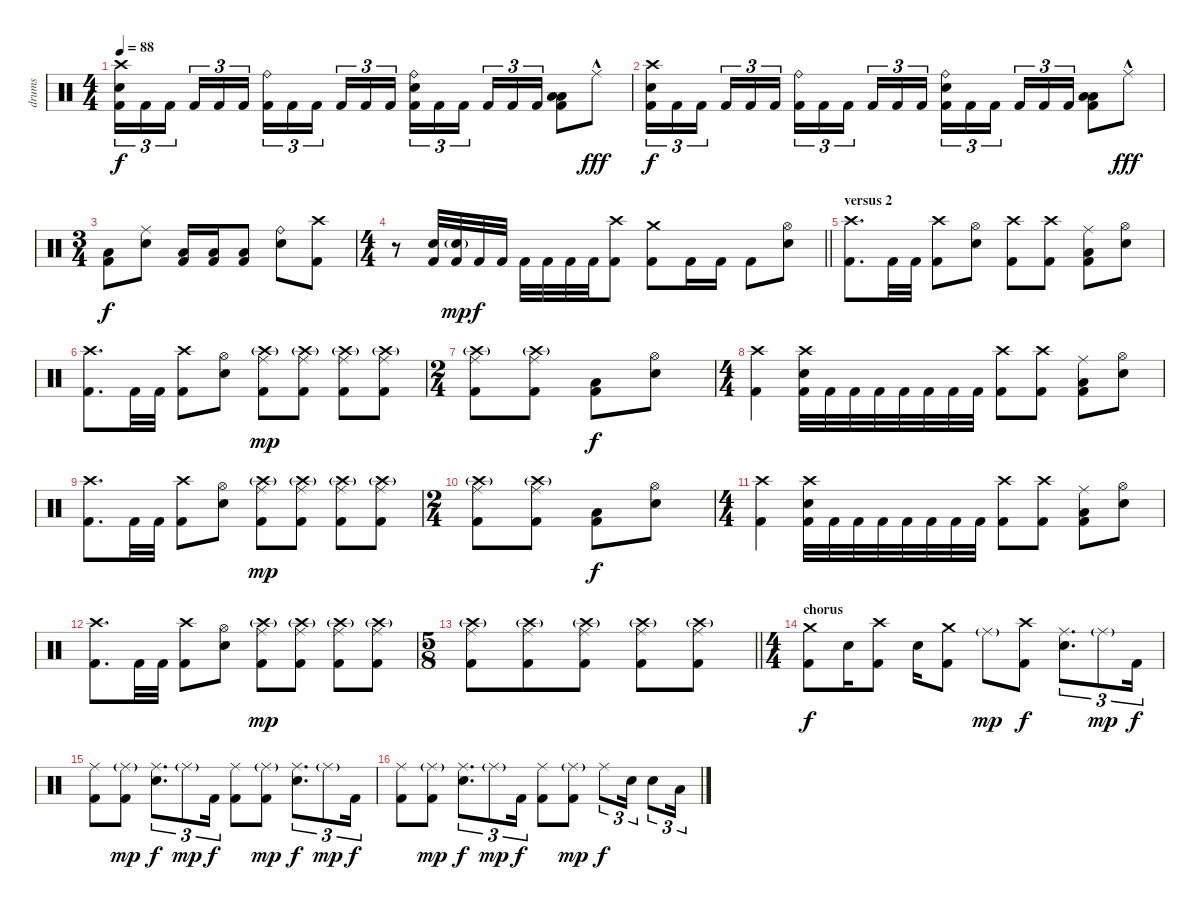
\track ("drums" "drums") {instrument percussion}
\staff {score}
\articulation defaults
\ts (4 4)
\tempo 88
\clef neutral
\ks c
("Crash high (hit)" "Snare (hit) 2" "Kick (hit) 2").16{tu (3 2) dy f} "Kick (hit) 2".16{tu (3 2)} "Kick (hit) 2".16{tu (3 2) beam splitsecondary} "Kick (hit) 2".16{tu (3 2)} "Kick (hit) 2".16{tu (3 2)} "Kick (hit) 2".16{tu (3 2)} ("Ride (bell)" "Kick (hit) 2").16{tu (3 2)} "Kick (hit) 2".16{tu (3 2)} "Kick (hit) 2".16{tu (3 2) beam splitsecondary} "Kick (hit) 2".16{tu (3 2)} "Kick (hit) 2".16{tu (3 2)} "Kick (hit) 2".16{tu (3 2)} ("Ride (bell)" "Snare (hit) 2" "Kick (hit) 2").16{tu (3 2)} "Kick (hit) 2".16{tu (3 2)} "Kick (hit) 2".16{tu (3 2) beam splitsecondary} "Kick (hit) 2".16{tu (3 2)} "Kick (hit) 2".16{tu (3 2)} "Kick (hit) 2".16{tu (3 2)} ("Low Floor Tom (hit)" "Low Floor Tom (hit)" "Kick (hit) 2").8 "Ride (middle)"{hac}.8{dy fff} |
("Crash high (hit)" "Snare (hit) 2" "Kick (hit) 2").16{tu (3 2) dy f} "Kick (hit) 2".16{tu (3 2)} "Kick (hit) 2".16{tu (3 2) beam splitsecondary} "Kick (hit) 2".16{tu (3 2)} "Kick (hit) 2".16{tu (3 2)} "Kick (hit) 2".16{tu (3 2)} ("Ride (bell)" "Kick (hit) 2").16{tu (3 2)} "Kick (hit) 2".16{tu (3 2)} "Kick (hit) 2".16{tu (3 2) beam splitsecondary} "Kick (hit) 2".16{tu (3 2)} "Kick (hit) 2".16{tu (3 2)} "Kick (hit) 2".16{tu (3 2)} ("Ride (bell)" "Snare (hit) 2" "Kick (hit) 2").16{tu (3 2)} "Kick (hit) 2".16{tu (3 2)} "Kick (hit) 2".16{tu (3 2) beam splitsecondary} "Kick (hit) 2".16{tu (3 2)} "Kick (hit) 2".16{tu (3 2)} "Kick (hit) 2".16{tu (3 2)} ("Low Floor Tom (hit)" "Low Floor Tom (hit)" "Kick (hit) 2").8 "Ride (middle)"{hac}.8{dy fff} |
\ts (3 4)
("Low Floor Tom (hit)" "Kick (hit) 2").8{dy f} ("Ride (middle)" "Snare (hit) 2").8 ("Low Floor Tom (hit)" "Kick (hit) 2").16 ("Low Floor Tom (hit)" "Kick (hit) 2").16 ("Low Floor Tom (hit)" "Kick (hit) 2").8 ("Ride (bell)" "Snare (hit) 2").8 ("Crash high (hit)" "Kick (hit) 2").8 |
\ts (4 4)
\barLineRight lightlight
r.8 ("Kick (hit) 2" "Snare (hit) 2").32 ("Snare (hit) 2"{g} "Kick (hit) 2").32{dy mp} "Kick (hit) 2".32{dy f} "Kick (hit) 2".32 "Kick (hit) 2".32 "Kick (hit) 2".32 "Kick (hit) 2".32 "Kick (hit) 2".32 ("Crash high (hit)" "Kick (hit) 2").8 ("Crash medium (hit)" "Kick (hit) 2").8 "Kick (hit) 2".16 "Kick (hit) 2".16 "Kick (hit) 2".8 ("Hi-Hat (open)" "Snare (hit) 2").8 |
\section ("" "versus 2")
("Crash high (hit)" "Kick (hit) 2").8{d} "Kick (hit) 2".32 "Kick (hit) 2".32 ("Crash high (hit)" "Kick (hit) 2").8 ("Hi-Hat (open)" "Snare (hit) 2").8 ("Crash high (hit)" "Kick (hit) 2").8 ("Crash high (hit)" "Kick (hit) 2").8 ("Ride (middle)" "Low Floor Tom (hit)" "Kick (hit) 2").8 ("Hi-Hat (open)" "Snare (hit) 2").8 |
("Crash high (hit)" "Kick (hit) 2").8{d} "Kick (hit) 2".32 "Kick (hit) 2".32 ("Crash high (hit)" "Kick (hit) 2").8 ("Hi-Hat (open)" "Snare (hit) 2").8 ("Ride (middle)" "Crash high (hit)"{g} "Kick (hit) 2").8{dy mp} ("Ride (middle)" "Crash high (hit)"{g} "Kick (hit) 2").8 ("Ride (middle)" "Crash high (hit)"{g} "Kick (hit) 2").8 ("Ride (middle)" "Crash high (hit)"{g} "Kick (hit) 2").8 |
\ts (2 4)
("Ride (middle)" "Crash high (hit)"{g} "Kick (hit) 2").8 ("Ride (middle)" "Crash high (hit)"{g} "Kick (hit) 2").8 ("Low Floor Tom (hit)" "Kick (hit) 2").8{dy f} ("Hi-Hat (open)" "Snare (hit) 2").8 |
\ts (4 4)
("Crash high (hit)" "Kick (hit) 2").4 ("Crash high (hit)" "Snare (hit) 2" "Kick (hit) 2").32 "Kick (hit) 2".32 "Kick (hit) 2".32 "Kick (hit) 2".32 "Kick (hit) 2".32 "Kick (hit) 2".32 "Kick (hit) 2".32 "Kick (hit) 2".32 ("Crash high (hit)" "Kick (hit) 2").8 ("Crash high (hit)" "Kick (hit) 2").8 ("Ride (middle)" "Low Floor Tom (hit)" "Kick (hit) 2").8 ("Hi-Hat (open)" "Snare (hit) 2").8 |
("Crash high (hit)" "Kick (hit) 2").8{d} "Kick (hit) 2".32 "Kick (hit) 2".32 ("Crash high (hit)" "Kick (hit) 2").8 ("Hi-Hat (open)" "Snare (hit) 2").8 ("Ride (middle)" "Crash high (hit)"{g} "Kick (hit) 2").8{dy mp} ("Ride (middle)" "Crash high (hit)"{g} "Kick (hit) 2").8 ("Ride (middle)" "Crash high (hit)"{g} "Kick (hit) 2").8 ("Ride (middle)" "Crash high (hit)"{g} "Kick (hit) 2").8 |
\ts (2 4)
("Ride (middle)" "Crash high (hit)"{g} "Kick (hit) 2").8 ("Ride (middle)" "Crash high (hit)"{g} "Kick (hit) 2").8 ("Low Floor Tom (hit)" "Kick (hit) 2").8{dy f} ("Hi-Hat (open)" "Snare (hit) 2").8 |
\ts (4 4)
("Crash high (hit)" "Kick (hit) 2").4 ("Crash high (hit)" "Snare (hit) 2" "Kick (hit) 2").32 "Kick (hit) 2".32 "Kick (hit) 2".32 "Kick (hit) 2".32 "Kick (hit) 2".32 "Kick (hit) 2".32 "Kick (hit) 2".32 "Kick (hit) 2".32 ("Crash high (hit)" "Kick (hit) 2").8 ("Crash high (hit)" "Kick (hit) 2").8 ("Ride (middle)" "Low Floor Tom (hit)" "Kick (hit) 2").8 ("Hi-Hat (open)" "Snare (hit) 2").8 |
("Crash high (hit)" "Kick (hit) 2").8{d} "Kick (hit) 2".32 "Kick (hit) 2".32 ("Crash high (hit)" "Kick (hit) 2").8 ("Hi-Hat (open)" "Snare (hit) 2").8 ("Ride (middle)" "Crash high (hit)"{g} "Kick (hit) 2").8{dy mp} ("Ride (middle)" "Crash high (hit)"{g} "Kick (hit) 2").8 ("Ride (middle)" "Crash high (hit)"{g} "Kick (hit) 2").8 ("Ride (middle)" "Crash high (hit)"{g} "Kick (hit) 2").8 |
\ts (5 8)
\barLineRight lightlight
("Ride (middle)" "Crash high (hit)"{g} "Kick (hit) 2").8 ("Ride (middle)" "Crash high (hit)"{g} "Kick (hit) 2").8 ("Ride (middle)" "Crash high (hit)"{g} "Kick (hit) 2").8 ("Ride (middle)" "Crash high (hit)"{g} "Kick (hit) 2").8 ("Ride (middle)" "Crash high (hit)"{g} "Kick (hit) 2").8 |
\ts (4 4)
\section ("" "chorus")
("Crash medium (hit)" "Kick (hit) 2").8{dy f} "Snare (hit) 2".16 ("Crash high (hit)" "Kick (hit) 2").8 "Snare (hit) 2".16 ("Crash medium (hit)" "Kick (hit) 2").8 "Ride (middle)"{g}.8{dy mp} ("Crash high (hit)" "Kick (hit) 2").8{dy f} ("Ride (middle)" "Snare (hit) 2").8{d tu (3 2)} "Ride (middle)"{g}.8{tu (3 2) dy mp} "Kick (hit) 2".16{tu (3 2) dy f} |
("Ride (middle)" "Kick (hit) 2").8 ("Ride (middle)"{g} "Kick (hit) 2").8{dy mp} ("Ride (middle)" "Snare (hit) 2").8{d tu (3 2) dy f} "Ride (middle)"{g}.8{tu (3 2) dy mp} "Kick (hit) 2".16{tu (3 2) dy f} ("Ride (middle)" "Kick (hit) 2").8 ("Ride (middle)"{g} "Kick (hit) 2").8{dy mp} ("Ride (middle)" "Snare (hit) 2").8{d tu (3 2) dy f} "Ride (middle)"{g}.8{tu (3 2) dy mp} "Kick (hit) 2".16{tu (3 2) dy f} |
("Ride (middle)" "Kick (hit) 2").8 ("Ride (middle)"{g} "Kick (hit) 2").8{dy mp} ("Ride (middle)" "Snare (hit) 2").8{d tu (3 2) dy f} "Ride (middle)"{g}.8{tu (3 2) dy mp} "Kick (hit) 2".16{tu (3 2) dy f} ("Ride (middle)" "Kick (hit) 2").8 ("Ride (middle)"{g} "Kick (hit) 2").8{dy mp} "Ride (middle)".8{tu (3 2) dy f} "Snare (hit) 2".16{tu (3 2)} "Snare (hit) 2".8{tu (3 2)} "Low Tom (hit)".16{tu (3 2)}
